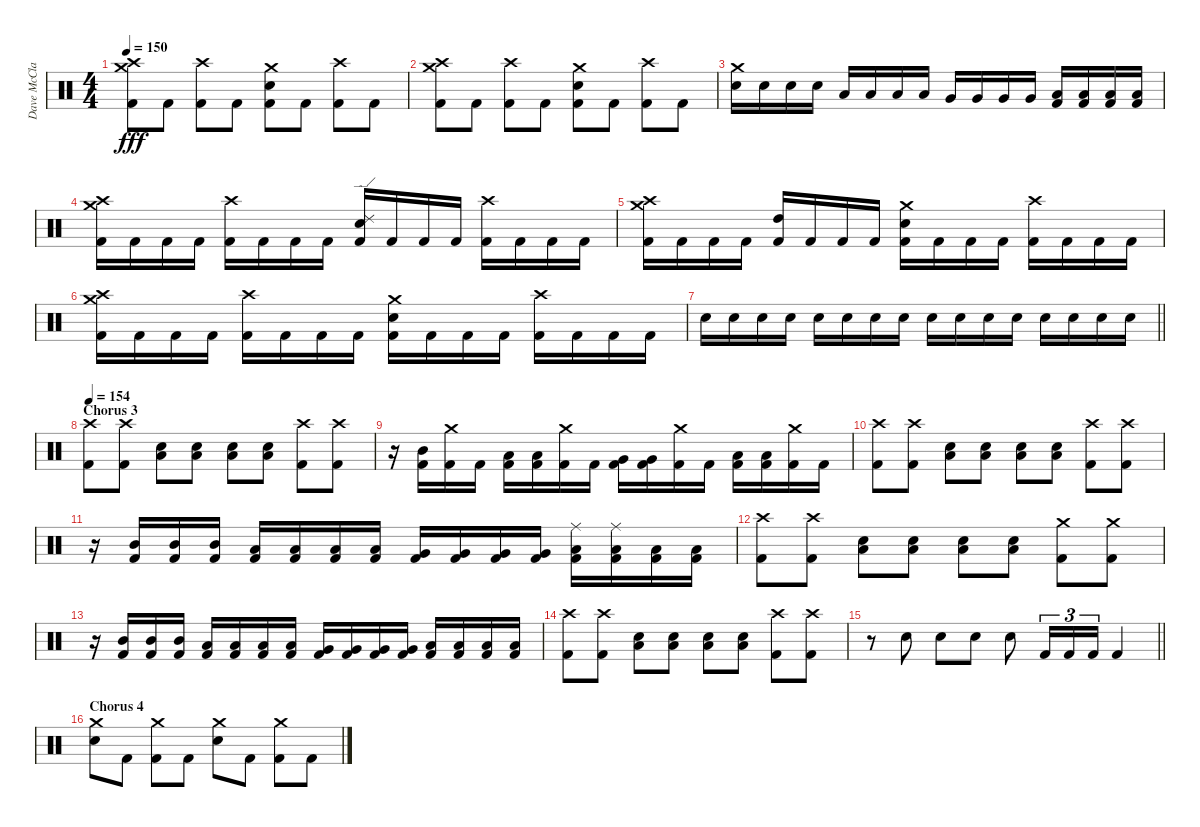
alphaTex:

\track ("Dave McClain" "Dave McCla") {instrument percussion}
\staff {score}
\articulation defaults
\ts (4 4)
\tempo 150
\clef neutral
\ks c
("Crash medium (hit)" "Crash high (hit)" "Kick (hit) 2").8{dy fff} "Kick (hit) 2".8 ("Crash high (hit)" "Kick (hit) 2").8 "Kick (hit) 2".8 ("Crash medium (hit)" "Electric Snare (hit)" "Kick (hit) 2").8 "Kick (hit) 2".8 ("Crash high (hit)" "Kick (hit) 2").8 "Kick (hit) 2".8 |
("Crash medium (hit)" "Crash high (hit)" "Kick (hit) 2").8 "Kick (hit) 2".8 ("Crash high (hit)" "Kick (hit) 2").8 "Kick (hit) 2".8 ("Crash medium (hit)" "Electric Snare (hit)" "Kick (hit) 2").8 "Kick (hit) 2".8 ("Crash high (hit)" "Kick (hit) 2").8 "Kick (hit) 2".8 |
("Crash medium (hit)" "Electric Snare (hit)").16 "Electric Snare (hit)".16 "Electric Snare (hit)".16 "Electric Snare (hit)".16 "Low Tom (hit)".16 "Low Tom (hit)".16 "Low Tom (hit)".16 "Low Tom (hit)".16 "Very Low Tom (hit)".16 "Very Low Tom (hit)".16 "Very Low Tom (hit)".16 "Very Low Tom (hit)".16 ("Low Floor Tom (hit)" "Kick (hit) 2").16 ("Low Floor Tom (hit)" "Kick (hit) 2").16 ("Low Floor Tom (hit)" "Kick (hit) 2").16 ("Low Floor Tom (hit)" "Kick (hit) 2").16 |
("Crash medium (hit)" "Crash high (hit)" "Kick (hit) 2").16 "Kick (hit) 2".16 "Kick (hit) 2".16 "Kick (hit) 2".16 ("Crash high (hit)" "Kick (hit) 2").16 "Kick (hit) 2".16 "Kick (hit) 2".16 "Kick (hit) 2".16 ("Ride (edge) 2" "Electric Snare (hit)" "Kick (hit) 2").16 "Kick (hit) 2".16 "Kick (hit) 2".16 "Kick (hit) 2".16 ("Crash high (hit)" "Kick (hit) 2").16 "Kick (hit) 2".16 "Kick (hit) 2".16 "Kick (hit) 2".16 |
("Crash medium (hit)" "Crash high (hit)" "Kick (hit) 2").16 "Kick (hit) 2".16 "Kick (hit) 2".16 "Kick (hit) 2".16 ("High Tom (hit)" "Kick (hit) 2").16 "Kick (hit) 2".16 "Kick (hit) 2".16 "Kick (hit) 2".16 ("Crash medium (hit)" "Electric Snare (hit)" "Kick (hit) 2").16 "Kick (hit) 2".16 "Kick (hit) 2".16 "Kick (hit) 2".16 ("Crash high (hit)" "Kick (hit) 2").16 "Kick (hit) 2".16 "Kick (hit) 2".16 "Kick (hit) 2".16 |
("Crash medium (hit)" "Crash high (hit)" "Kick (hit) 2").16 "Kick (hit) 2".16 "Kick (hit) 2".16 "Kick (hit) 2".16 ("Crash high (hit)" "Kick (hit) 2").16 "Kick (hit) 2".16 "Kick (hit) 2".16 "Kick (hit) 2".16 ("Crash medium (hit)" "Electric Snare (hit)" "Kick (hit) 2").16 "Kick (hit) 2".16 "Kick (hit) 2".16 "Kick (hit) 2".16 ("Crash high (hit)" "Kick (hit) 2").16 "Kick (hit) 2".16 "Kick (hit) 2".16 "Kick (hit) 2".16 |
\barLineRight lightlight "Electric Snare (hit)".16 "Electric Snare (hit)".16 "Electric Snare (hit)".16 "Electric Snare (hit)".16 "Electric Snare (hit)".16 "Electric Snare (hit)".16 "Electric Snare (hit)".16 "Electric Snare (hit)".16 "Electric Snare (hit)".16 "Electric Snare (hit)".16 "Electric Snare (hit)".16 "Electric Snare (hit)".16 "Electric Snare (hit)".16 "Electric Snare (hit)".16 "Electric Snare (hit)".16 "Electric Snare (hit)".16
|
\section ("" "Chorus 3")
\tempo 154
("Crash high (hit)" "Kick (hit) 2").8 ("Crash high (hit)" "Kick (hit) 2").8 ("Electric Snare (hit)" "Low Floor Tom (hit)").8 ("Electric Snare (hit)" "Low Floor Tom (hit)").8 ("Electric Snare (hit)" "Low Floor Tom (hit)").8 ("Electric Snare (hit)" "Low Floor Tom (hit)").8 ("Crash high (hit)" "Kick (hit) 2").8 ("Crash high (hit)" "Kick (hit) 2").8 |
r.16 ("Mid Tom (hit)" "Kick (hit) 2").16 ("Crash medium (hit)" "Kick (hit) 2").16 "Kick (hit) 2".16 ("Low Tom (hit)" "Kick (hit) 2").16 ("Low Tom (hit)" "Kick (hit) 2").16 ("Crash medium (hit)" "Kick (hit) 2").16 "Kick (hit) 2".16 ("Very Low Tom (hit)" "Kick (hit) 2").16 ("Very Low Tom (hit)" "Kick (hit) 2").16 ("Crash medium (hit)" "Kick (hit) 2").16 "Kick (hit) 2".16 ("Low Floor Tom (hit)" "Kick (hit) 2").16 ("Low Floor Tom (hit)" "Kick (hit) 2").16 ("Crash medium (hit)" "Kick (hit) 2").16 "Kick (hit) 2".16 |
("Crash high (hit)" "Kick (hit) 2").8 ("Crash high (hit)" "Kick (hit) 2").8 ("Electric Snare (hit)" "Low Floor Tom (hit)").8 ("Electric Snare (hit)" "Low Floor Tom (hit)").8 ("Electric Snare (hit)" "Low Floor Tom (hit)").8 ("Electric Snare (hit)" "Low Floor Tom (hit)").8 ("Crash high (hit)" "Kick (hit) 2").8 ("Crash high (hit)" "Kick (hit) 2").8 |
r.16 ("Mid Tom (hit)" "Kick (hit) 2").16 ("Mid Tom (hit)" "Kick (hit) 2").16 ("Mid Tom (hit)" "Kick (hit) 2").16 ("Low Tom (hit)" "Kick (hit) 2").16 ("Low Tom (hit)" "Kick (hit) 2").16 ("Low Tom (hit)" "Kick (hit) 2").16 ("Low Tom (hit)" "Kick (hit) 2").16 ("Very Low Tom (hit)" "Kick (hit) 2").16 ("Very Low Tom (hit)" "Kick (hit) 2").16 ("Very Low Tom (hit)" "Kick (hit) 2").16 ("Very Low Tom (hit)" "Kick (hit) 2").16 ("Ride (middle)" "Low Floor Tom (hit)" "Kick (hit) 2").16 ("Ride (middle)" "Low Floor Tom (hit)" "Kick (hit) 2").16 ("Low Floor Tom (hit)" "Kick (hit) 2").16 ("Low Floor Tom (hit)" "Kick (hit) 2").16 |
("Crash high (hit)" "Kick (hit) 2").8 ("Crash high (hit)" "Kick (hit) 2").8 ("Electric Snare (hit)" "Low Floor Tom (hit)").8 ("Electric Snare (hit)" "Low Floor Tom (hit)").8 ("Electric Snare (hit)" "Low Floor Tom (hit)").8 ("Electric Snare (hit)" "Low Floor Tom (hit)").8 ("Crash medium (hit)" "Kick (hit) 2").8 ("Crash medium (hit)" "Kick (hit) 2").8 |
r.16 ("Mid Tom (hit)" "Kick (hit) 2").16 ("Mid Tom (hit)" "Kick (hit) 2").16 ("Mid Tom (hit)" "Kick (hit) 2").16 ("Low Tom (hit)" "Kick (hit) 2").16 ("Low Tom (hit)" "Kick (hit) 2").16 ("Low Tom (hit)" "Kick (hit) 2").16 ("Low Tom (hit)" "Kick (hit) 2").16 ("Very Low Tom (hit)" "Kick (hit) 2").16 ("Very Low Tom (hit)" "Kick (hit) 2").16 ("Very Low Tom (hit)" "Kick (hit) 2").16 ("Very Low Tom (hit)" "Kick (hit) 2").16 ("Low Floor Tom (hit)" "Kick (hit) 2").16 ("Low Floor Tom (hit)" "Kick (hit) 2").16 ("Low Floor Tom (hit)" "Kick (hit) 2").16 ("Low Floor Tom (hit)" "Kick (hit) 2").16 |
("Crash high (hit)" "Kick (hit) 2").8 ("Crash high (hit)" "Kick (hit) 2").8 ("Electric Snare (hit)" "Low Floor Tom (hit)").8 ("Electric Snare (hit)" "Low Floor Tom (hit)").8 ("Electric Snare (hit)" "Low Floor Tom (hit)").8 ("Electric Snare (hit)" "Low Floor Tom (hit)").8 ("Crash high (hit)" "Kick (hit) 2").8 ("Crash high (hit)" "Kick (hit) 2").8 |
\barLineRight lightlight
r.8 "Electric Snare (hit)".8 "Electric Snare (hit)".8 "Electric Snare (hit)".8 "Electric Snare (hit)".8 "Kick (hit) 2".16{tu (3 2)} "Kick (hit) 2".16{tu (3 2)} "Kick (hit) 2".16{tu (3 2)} "Kick (hit) 2".4 |
\section ("" "Chorus 4")
("Crash medium (hit)" "Electric Snare (hit)").8 "Kick (hit) 2".8 ("Crash medium (hit)" "Kick (hit) 2").8 "Kick (hit) 2".8 ("Crash medium (hit)" "Electric Snare (hit)").8 "Kick (hit) 2".8 ("Crash medium (hit)" "Kick (hit) 2").8 "Kick (hit) 2".8
